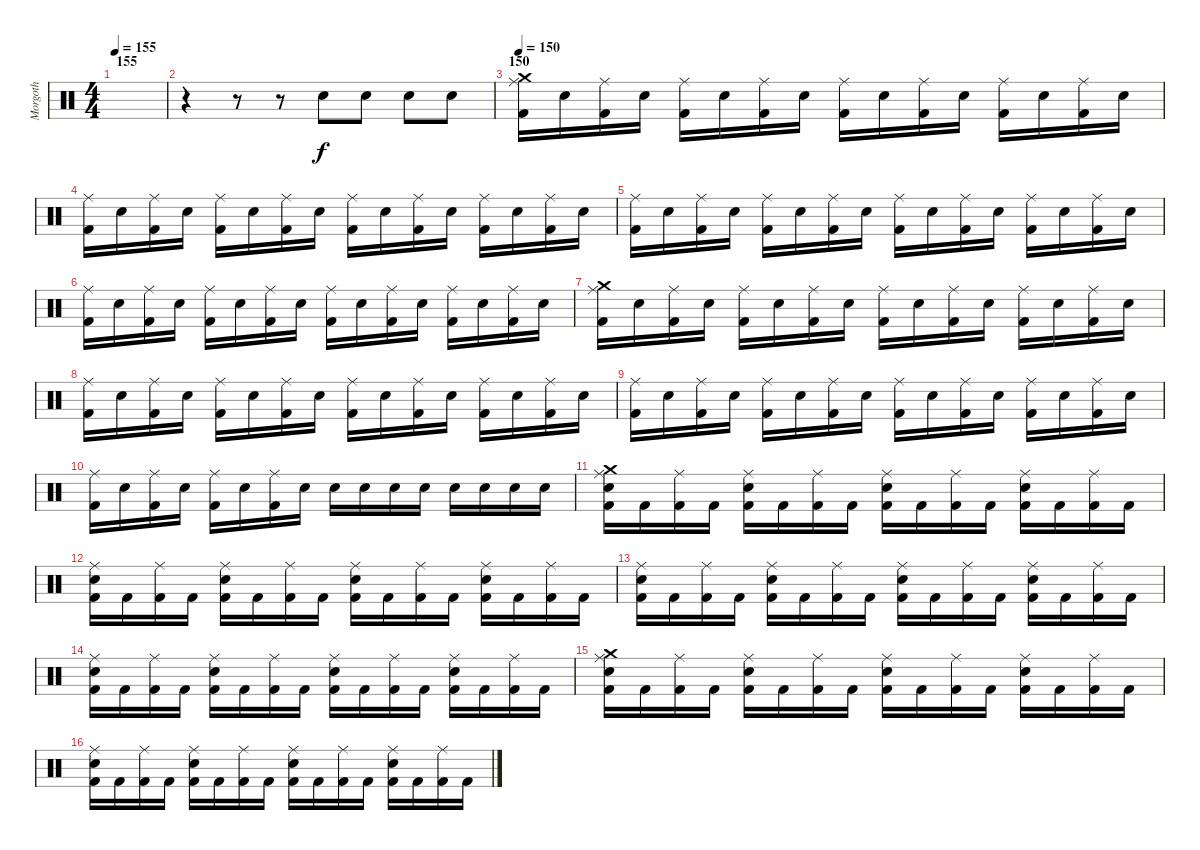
\track ("Morgoth" "Morgoth") {instrument percussion}
\staff {score}
\articulation defaults
\ts (4 4)
\section ("" "155")
\tempo 155
\clef neutral
\ks c
|
r.4 r.8 r.8 "Electric Snare (hit)".8 "Electric Snare (hit)".8 "Electric Snare (hit)".8 "Electric Snare (hit)".8 |
\section ("" "150")
\tempo 150
("Crash medium (hit)" "Ride (middle)" "Kick (hit) 2").16 "Electric Snare (hit)".16 ("Ride (middle)" "Kick (hit) 2").16 "Electric Snare (hit)".16 ("Ride (middle)" "Kick (hit) 2").16 "Electric Snare (hit)".16 ("Ride (middle)" "Kick (hit) 2").16 "Electric Snare (hit)".16 ("Ride (middle)" "Kick (hit) 2").16 "Electric Snare (hit)".16 ("Ride (middle)" "Kick (hit) 2").16 "Electric Snare (hit)".16 ("Ride (middle)" "Kick (hit) 2").16 "Electric Snare (hit)".16 ("Ride (middle)" "Kick (hit) 2").16 "Electric Snare (hit)".16 |
("Ride (middle)" "Kick (hit) 2").16 "Electric Snare (hit)".16 ("Ride (middle)" "Kick (hit) 2").16 "Electric Snare (hit)".16 ("Ride (middle)" "Kick (hit) 2").16 "Electric Snare (hit)".16 ("Ride (middle)" "Kick (hit) 2").16 "Electric Snare (hit)".16 ("Ride (middle)" "Kick (hit) 2").16 "Electric Snare (hit)".16 ("Ride (middle)" "Kick (hit) 2").16 "Electric Snare (hit)".16 ("Ride (middle)" "Kick (hit) 2").16 "Electric Snare (hit)".16 ("Ride (middle)" "Kick (hit) 2").16 "Electric Snare (hit)".16 |
("Ride (middle)" "Kick (hit) 2").16 "Electric Snare (hit)".16 ("Ride (middle)" "Kick (hit) 2").16 "Electric Snare (hit)".16 ("Ride (middle)" "Kick (hit) 2").16 "Electric Snare (hit)".16 ("Ride (middle)" "Kick (hit) 2").16 "Electric Snare (hit)".16 ("Ride (middle)" "Kick (hit) 2").16 "Electric Snare (hit)".16 ("Ride (middle)" "Kick (hit) 2").16 "Electric Snare (hit)".16 ("Ride (middle)" "Kick (hit) 2").16 "Electric Snare (hit)".16 ("Ride (middle)" "Kick (hit) 2").16 "Electric Snare (hit)".16 |
("Ride (middle)" "Kick (hit) 2").16 "Electric Snare (hit)".16 ("Ride (middle)" "Kick (hit) 2").16 "Electric Snare (hit)".16 ("Ride (middle)" "Kick (hit) 2").16 "Electric Snare (hit)".16 ("Ride (middle)" "Kick (hit) 2").16 "Electric Snare (hit)".16 ("Ride (middle)" "Kick (hit) 2").16 "Electric Snare (hit)".16 ("Ride (middle)" "Kick (hit) 2").16 "Electric Snare (hit)".16 ("Ride (middle)" "Kick (hit) 2").16 "Electric Snare (hit)".16 ("Ride (middle)" "Kick (hit) 2").16 "Electric Snare (hit)".16 |
("Crash medium (hit)" "Ride (middle)" "Kick (hit) 2").16 "Electric Snare (hit)".16 ("Ride (middle)" "Kick (hit) 2").16 "Electric Snare (hit)".16 ("Ride (middle)" "Kick (hit) 2").16 "Electric Snare (hit)".16 ("Ride (middle)" "Kick (hit) 2").16 "Electric Snare (hit)".16 ("Ride (middle)" "Kick (hit) 2").16 "Electric Snare (hit)".16 ("Ride (middle)" "Kick (hit) 2").16 "Electric Snare (hit)".16 ("Ride (middle)" "Kick (hit) 2").16 "Electric Snare (hit)".16 ("Ride (middle)" "Kick (hit) 2").16 "Electric Snare (hit)".16 |
("Ride (middle)" "Kick (hit) 2").16 "Electric Snare (hit)".16 ("Ride (middle)" "Kick (hit) 2").16 "Electric Snare (hit)".16 ("Ride (middle)" "Kick (hit) 2").16 "Electric Snare (hit)".16 ("Ride (middle)" "Kick (hit) 2").16 "Electric Snare (hit)".16 ("Ride (middle)" "Kick (hit) 2").16 "Electric Snare (hit)".16 ("Ride (middle)" "Kick (hit) 2").16 "Electric Snare (hit)".16 ("Ride (middle)" "Kick (hit) 2").16 "Electric Snare (hit)".16 ("Ride (middle)" "Kick (hit) 2").16 "Electric Snare (hit)".16 |
("Ride (middle)" "Kick (hit) 2").16 "Electric Snare (hit)".16 ("Ride (middle)" "Kick (hit) 2").16 "Electric Snare (hit)".16 ("Ride (middle)" "Kick (hit) 2").16 "Electric Snare (hit)".16 ("Ride (middle)" "Kick (hit) 2").16 "Electric Snare (hit)".16 ("Ride (middle)" "Kick (hit) 2").16 "Electric Snare (hit)".16 ("Ride (middle)" "Kick (hit) 2").16 "Electric Snare (hit)".16 ("Ride (middle)" "Kick (hit) 2").16 "Electric Snare (hit)".16 ("Ride (middle)" "Kick (hit) 2").16 "Electric Snare (hit)".16 |
("Ride (middle)" "Kick (hit) 2").16 "Electric Snare (hit)".16 ("Ride (middle)" "Kick (hit) 2").16 "Electric Snare (hit)".16 ("Ride (middle)" "Kick (hit) 2").16 "Electric Snare (hit)".16 ("Ride (middle)" "Kick (hit) 2").16 "Electric Snare (hit)".16 "Electric Snare (hit)".16 "Electric Snare (hit)".16 "Electric Snare (hit)".16 "Electric Snare (hit)".16 "Electric Snare (hit)".16 "Electric Snare (hit)".16 "Electric Snare (hit)".16 "Electric Snare (hit)".16 |
("Crash medium (hit)" "Ride (middle)" "Electric Snare (hit)" "Kick (hit) 2").16 "Kick (hit) 2".16 ("Ride (middle)" "Kick (hit) 2").16 "Kick (hit) 2".16 ("Ride (middle)" "Electric Snare (hit)" "Kick (hit) 2").16 "Kick (hit) 2".16 ("Ride (middle)" "Kick (hit) 2").16 "Kick (hit) 2".16 ("Ride (middle)" "Electric Snare (hit)" "Kick (hit) 2").16 "Kick (hit) 2".16 ("Ride (middle)" "Kick (hit) 2").16 "Kick (hit) 2".16 ("Ride (middle)" "Electric Snare (hit)" "Kick (hit) 2").16 "Kick (hit) 2".16 ("Ride (middle)" "Kick (hit) 2").16 "Kick (hit) 2".16 |
("Ride (middle)" "Electric Snare (hit)" "Kick (hit) 2").16 "Kick (hit) 2".16 ("Ride (middle)" "Kick (hit) 2").16 "Kick (hit) 2".16 ("Ride (middle)" "Electric Snare (hit)" "Kick (hit) 2").16 "Kick (hit) 2".16 ("Ride (middle)" "Kick (hit) 2").16 "Kick (hit) 2".16 ("Ride (middle)" "Electric Snare (hit)" "Kick (hit) 2").16 "Kick (hit) 2".16 ("Ride (middle)" "Kick (hit) 2").16 "Kick (hit) 2".16 ("Ride (middle)" "Electric Snare (hit)" "Kick (hit) 2").16 "Kick (hit) 2".16 ("Ride (middle)" "Kick (hit) 2").16 "Kick (hit) 2".16 |
("Ride (middle)" "Electric Snare (hit)" "Kick (hit) 2").16 "Kick (hit) 2".16 ("Ride (middle)" "Kick (hit) 2").16 "Kick (hit) 2".16 ("Ride (middle)" "Electric Snare (hit)" "Kick (hit) 2").16 "Kick (hit) 2".16 ("Ride (middle)" "Kick (hit) 2").16 "Kick (hit) 2".16 ("Ride (middle)" "Electric Snare (hit)" "Kick (hit) 2").16 "Kick (hit) 2".16 ("Ride (middle)" "Kick (hit) 2").16 "Kick (hit) 2".16 ("Ride (middle)" "Electric Snare (hit)" "Kick (hit) 2").16 "Kick (hit) 2".16 ("Ride (middle)" "Kick (hit) 2").16 "Kick (hit) 2".16 |
("Ride (middle)" "Electric Snare (hit)" "Kick (hit) 2").16 "Kick (hit) 2".16 ("Ride (middle)" "Kick (hit) 2").16 "Kick (hit) 2".16 ("Ride (middle)" "Electric Snare (hit)" "Kick (hit) 2").16 "Kick (hit) 2".16 ("Ride (middle)" "Kick (hit) 2").16 "Kick (hit) 2".16 ("Ride (middle)" "Electric Snare (hit)" "Kick (hit) 2").16 "Kick (hit) 2".16 ("Ride (middle)" "Kick (hit) 2").16 "Kick (hit) 2".16 ("Ride (middle)" "Electric Snare (hit)" "Kick (hit) 2").16 "Kick (hit) 2".16 ("Ride (middle)" "Kick (hit) 2").16 "Kick (hit) 2".16 |
("Crash medium (hit)" "Ride (middle)" "Electric Snare (hit)" "Kick (hit) 2").16 "Kick (hit) 2".16 ("Ride (middle)" "Kick (hit) 2").16 "Kick (hit) 2".16 ("Ride (middle)" "Electric Snare (hit)" "Kick (hit) 2").16 "Kick (hit) 2".16 ("Ride (middle)" "Kick (hit) 2").16 "Kick (hit) 2".16 ("Ride (middle)" "Electric Snare (hit)" "Kick (hit) 2").16 "Kick (hit) 2".16 ("Ride (middle)" "Kick (hit) 2").16 "Kick (hit) 2".16 ("Ride (middle)" "Electric Snare (hit)" "Kick (hit) 2").16 "Kick (hit) 2".16 ("Ride (middle)" "Kick (hit) 2").16 "Kick (hit) 2".16 |
("Ride (middle)" "Electric Snare (hit)" "Kick (hit) 2").16 "Kick (hit) 2".16 ("Ride (middle)" "Kick (hit) 2").16 "Kick (hit) 2".16 ("Ride (middle)" "Electric Snare (hit)" "Kick (hit) 2").16 "Kick (hit) 2".16 ("Ride (middle)" "Kick (hit) 2").16 "Kick (hit) 2".16 ("Ride (middle)" "Electric Snare (hit)" "Kick (hit) 2").16 "Kick (hit) 2".16 ("Ride (middle)" "Kick (hit) 2").16 "Kick (hit) 2".16 ("Ride (middle)" "Electric Snare (hit)" "Kick (hit) 2").16 "Kick (hit) 2".16 ("Ride (middle)" "Kick (hit) 2").16 "Kick (hit) 2".16
